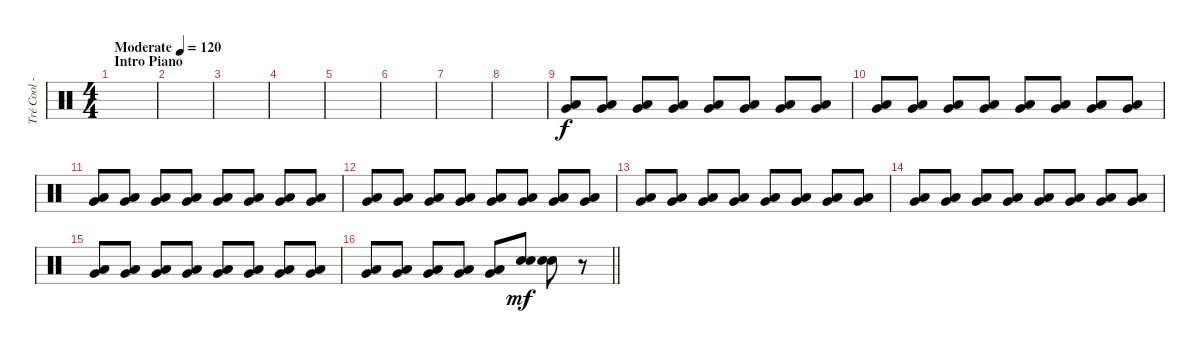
\track ("Tré Cool - Drums" "Tré Cool -") {instrument percussion}
\staff {score}
\articulation defaults
\ts (4 4)
\section ("" "Intro Piano")
\tempo (120 "Moderate")
\clef neutral
\ks c
|
|
|
|
|
|
|
|
("Low Tom (hit)" "Very Low Tom (hit)").8{volume 6} ("Low Tom (hit)" "Very Low Tom (hit)").8 ("Low Tom (hit)" "Very Low Tom (hit)").8 ("Low Tom (hit)" "Very Low Tom (hit)").8 ("Low Tom (hit)" "Very Low Tom (hit)").8 ("Low Tom (hit)" "Very Low Tom (hit)").8 ("Low Tom (hit)" "Very Low Tom (hit)").8 ("Low Tom (hit)" "Very Low Tom (hit)").8 |
("Low Tom (hit)" "Very Low Tom (hit)").8 ("Low Tom (hit)" "Very Low Tom (hit)").8 ("Low Tom (hit)" "Very Low Tom (hit)").8 ("Low Tom (hit)" "Very Low Tom (hit)").8 ("Low Tom (hit)" "Very Low Tom (hit)").8 ("Low Tom (hit)" "Very Low Tom (hit)").8 ("Low Tom (hit)" "Very Low Tom (hit)").8 ("Low Tom (hit)" "Very Low Tom (hit)").8 |
("Low Tom (hit)" "Very Low Tom (hit)").8 ("Low Tom (hit)" "Very Low Tom (hit)").8 ("Low Tom (hit)" "Very Low Tom (hit)").8 ("Low Tom (hit)" "Very Low Tom (hit)").8 ("Low Tom (hit)" "Very Low Tom (hit)").8 ("Low Tom (hit)" "Very Low Tom (hit)").8 ("Low Tom (hit)" "Very Low Tom (hit)").8 ("Low Tom (hit)" "Very Low Tom (hit)").8 |
("Low Tom (hit)" "Very Low Tom (hit)").8 ("Low Tom (hit)" "Very Low Tom (hit)").8 ("Low Tom (hit)" "Very Low Tom (hit)").8 ("Low Tom (hit)" "Very Low Tom (hit)").8 ("Low Tom (hit)" "Very Low Tom (hit)").8 ("Low Tom (hit)" "Very Low Tom (hit)").8 ("Low Tom (hit)" "Very Low Tom (hit)").8 ("Low Tom (hit)" "Very Low Tom (hit)").8 |
("Low Tom (hit)" "Very Low Tom (hit)").8 ("Low Tom (hit)" "Very Low Tom (hit)").8 ("Low Tom (hit)" "Very Low Tom (hit)").8{volume 9} ("Low Tom (hit)" "Very Low Tom (hit)").8 ("Low Tom (hit)" "Very Low Tom (hit)").8 ("Low Tom (hit)" "Very Low Tom (hit)").8 ("Low Tom (hit)" "Very Low Tom (hit)").8 ("Low Tom (hit)" "Very Low Tom (hit)").8 |
("Low Tom (hit)" "Very Low Tom (hit)").8 ("Low Tom (hit)" "Very Low Tom (hit)").8 ("Low Tom (hit)" "Very Low Tom (hit)").8 ("Low Tom (hit)" "Very Low Tom (hit)").8 ("Low Tom (hit)" "Very Low Tom (hit)").8 ("Low Tom (hit)" "Very Low Tom (hit)").8 ("Low Tom (hit)" "Very Low Tom (hit)").8 ("Low Tom (hit)" "Very Low Tom (hit)").8 |
("Low Tom (hit)" "Very Low Tom (hit)").8 ("Low Tom (hit)" "Very Low Tom (hit)").8 ("Low Tom (hit)" "Very Low Tom (hit)").8 ("Low Tom (hit)" "Very Low Tom (hit)").8 ("Low Tom (hit)" "Very Low Tom (hit)").8 ("Low Tom (hit)" "Very Low Tom (hit)").8 ("Low Tom (hit)" "Very Low Tom (hit)").8 ("Low Tom (hit)" "Very Low Tom (hit)").8 |
\barLineRight lightlight
("Low Tom (hit)" "Very Low Tom (hit)").8 ("Low Tom (hit)" "Very Low Tom (hit)").8 ("Low Tom (hit)" "Very Low Tom (hit)").8 ("Low Tom (hit)" "Very Low Tom (hit)").8 ("Low Tom (hit)" "Very Low Tom (hit)").8 ("Electric Snare (hit)" "Electric Snare (hit)").8{dy mf volume 12} ("Electric Snare (hit)" "Electric Snare (hit)").8 r.8
